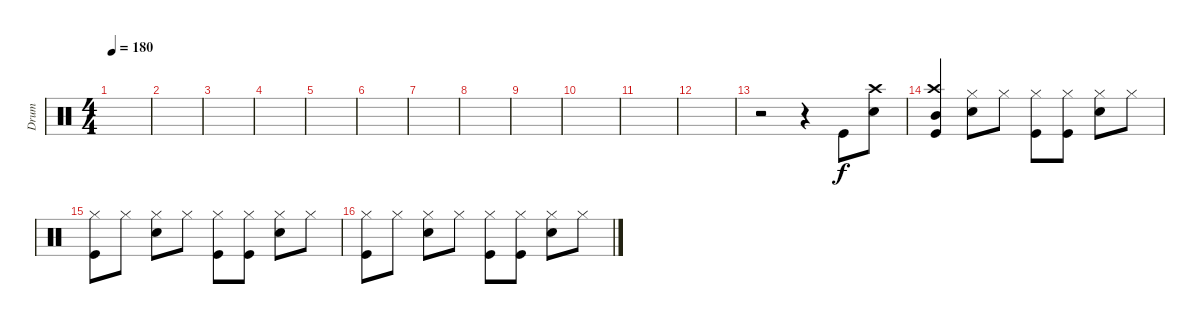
\track ("Drum" "Drum") {instrument percussion}
\staff {score}
\articulation defaults
\ts (4 4)
\tempo 180
\clef neutral
\ks c
|
|
|
|
|
|
|
|
|
|
|
|
r.2 r.4 "Kick (hit)".8 ("Crash high (hit)" "Snare (hit) 2").8 |
("Crash high (hit)" "Mid Tom (hit)" "Kick (hit)").4 ("Hi-Hat (closed)" "Snare (hit) 2").8 "Hi-Hat (closed)".8 ("Hi-Hat (closed)" "Kick (hit)").8 ("Hi-Hat (closed)" "Kick (hit)").8 ("Hi-Hat (closed)" "Snare (hit) 2").8 "Hi-Hat (closed)".8 |
("Hi-Hat (closed)" "Kick (hit)").8 "Hi-Hat (closed)".8 ("Hi-Hat (closed)" "Snare (hit) 2").8 "Hi-Hat (closed)".8 ("Hi-Hat (closed)" "Kick (hit)").8 ("Hi-Hat (closed)" "Kick (hit)").8 ("Hi-Hat (closed)" "Snare (hit) 2").8 "Hi-Hat (closed)".8 |
("Hi-Hat (closed)" "Kick (hit)").8 "Hi-Hat (closed)".8 ("Hi-Hat (closed)" "Snare (hit) 2").8 "Hi-Hat (closed)".8 ("Hi-Hat (closed)" "Kick (hit)").8 ("Hi-Hat (closed)" "Kick (hit)").8 ("Hi-Hat (closed)" "Snare (hit) 2").8 "Hi-Hat (closed)".8
